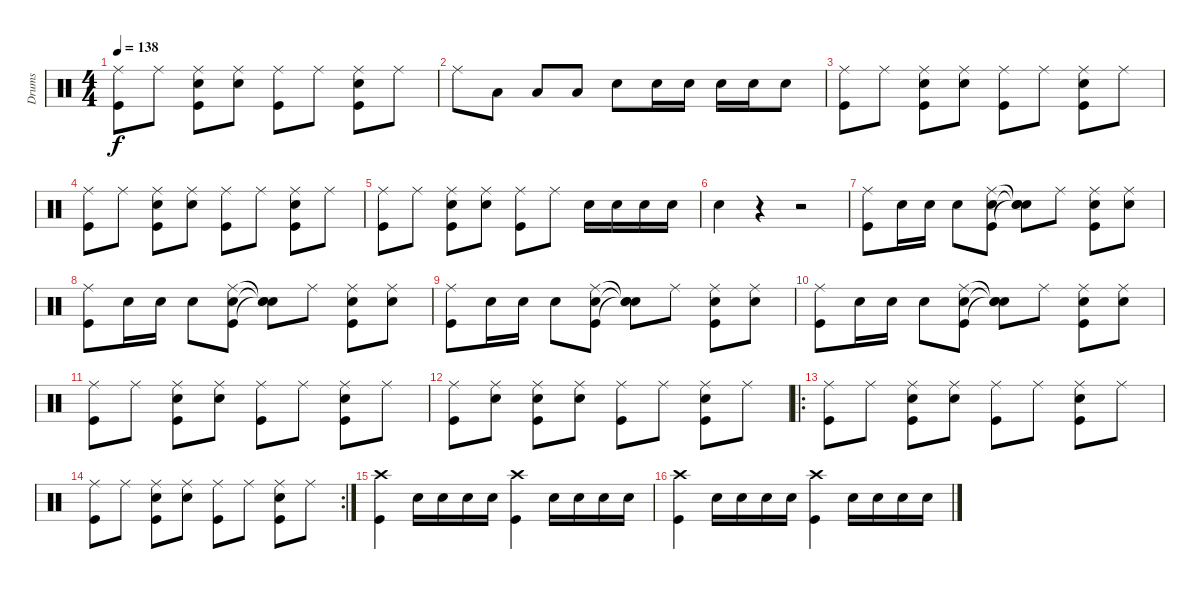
\track ("Drums" "Drums") {instrument percussion}
\staff {score}
\articulation defaults
\ts (4 4)
\tempo 138
\clef neutral
\ks c
("Ride (middle)" "Kick (hit)").8{dy f} "Ride (middle)".8 ("Ride (middle)" "Snare (hit) 2" "Kick (hit)").8 ("Ride (middle)" "Snare (hit) 2").8 ("Ride (middle)" "Kick (hit)").8 "Ride (middle)".8 ("Ride (middle)" "Snare (hit) 2" "Kick (hit)").8 "Ride (middle)".8 |
"Ride (middle)".8 "Low Tom (hit)".8 "Low Tom (hit)".8 "Low Tom (hit)".8 "Snare (hit) 2".8 "Snare (hit) 2".16 "Snare (hit) 2".16 "Snare (hit) 2".16 "Snare (hit) 2".16 "Snare (hit) 2".8 |
("Ride (middle)" "Kick (hit)").8 "Ride (middle)".8 ("Ride (middle)" "Snare (hit) 2" "Kick (hit)").8 ("Ride (middle)" "Snare (hit) 2").8 ("Ride (middle)" "Kick (hit)").8 "Ride (middle)".8 ("Ride (middle)" "Snare (hit) 2" "Kick (hit)").8 "Ride (middle)".8 |
("Ride (middle)" "Kick (hit)").8 "Ride (middle)".8 ("Ride (middle)" "Snare (hit) 2" "Kick (hit)").8 ("Ride (middle)" "Snare (hit) 2").8 ("Ride (middle)" "Kick (hit)").8 "Ride (middle)".8 ("Ride (middle)" "Snare (hit) 2" "Kick (hit)").8 "Ride (middle)".8 |
("Ride (middle)" "Kick (hit)").8 "Ride (middle)".8 ("Ride (middle)" "Snare (hit) 2" "Kick (hit)").8 ("Ride (middle)" "Snare (hit) 2").8 ("Ride (middle)" "Kick (hit)").8 "Ride (middle)".8 "Snare (hit) 2".16 "Snare (hit) 2".16 "Snare (hit) 2".16 "Snare (hit) 2".16 |
"Snare (hit) 2".4 r.4 r.2 |
("Ride (middle)" "Kick (hit)").8 "Snare (hit) 2".16 "Snare (hit) 2".16 "Snare (hit) 2".8 ("Ride (middle)" "Snare (hit) 2" "Kick (hit)").8 ("Snare (hit)"{t} "Snare (hit)"{t} "Snare (hit)"{t}).8 "Ride (middle)".8 ("Ride (middle)" "Snare (hit) 2" "Kick (hit)").8 ("Ride (middle)" "Snare (hit) 2").8 |
("Ride (middle)" "Kick (hit)").8 "Snare (hit) 2".16 "Snare (hit) 2".16 "Snare (hit) 2".8 ("Ride (middle)" "Snare (hit) 2" "Kick (hit)").8 ("Snare (hit)"{t} "Snare (hit)"{t} "Snare (hit)"{t}).8 "Ride (middle)".8 ("Ride (middle)" "Snare (hit) 2" "Kick (hit)").8 ("Ride (middle)" "Snare (hit) 2").8 |
("Ride (middle)" "Kick (hit)").8 "Snare (hit) 2".16 "Snare (hit) 2".16 "Snare (hit) 2".8 ("Ride (middle)" "Snare (hit) 2" "Kick (hit)").8 ("Snare (hit)"{t} "Snare (hit)"{t} "Snare (hit)"{t}).8 "Ride (middle)".8 ("Ride (middle)" "Snare (hit) 2" "Kick (hit)").8 ("Ride (middle)" "Snare (hit) 2").8 |
("Ride (middle)" "Kick (hit)").8 "Snare (hit) 2".16 "Snare (hit) 2".16 "Snare (hit) 2".8 ("Ride (middle)" "Snare (hit) 2" "Kick (hit)").8 ("Snare (hit)"{t} "Snare (hit)"{t} "Snare (hit)"{t}).8 "Ride (middle)".8 ("Ride (middle)" "Snare (hit) 2" "Kick (hit)").8 ("Ride (middle)" "Snare (hit) 2").8 |
("Ride (middle)" "Kick (hit)").8 "Ride (middle)".8 ("Ride (middle)" "Snare (hit) 2" "Kick (hit)").8 ("Ride (middle)" "Snare (hit) 2").8 ("Ride (middle)" "Kick (hit)").8 "Ride (middle)".8 ("Ride (middle)" "Snare (hit) 2" "Kick (hit)").8 "Ride (middle)".8 |
("Ride (middle)" "Kick (hit)").8 ("Ride (middle)" "Snare (hit) 2").8 ("Ride (middle)" "Snare (hit) 2" "Kick (hit)").8 ("Ride (middle)" "Snare (hit) 2").8 ("Ride (middle)" "Kick (hit)").8 "Ride (middle)".8 ("Ride (middle)" "Snare (hit) 2" "Kick (hit)").8 "Ride (middle)".8 |
\ro
("Ride (middle)" "Kick (hit)").8 "Ride (middle)".8 ("Ride (middle)" "Snare (hit) 2" "Kick (hit)").8 ("Ride (middle)" "Snare (hit) 2").8 ("Ride (middle)" "Kick (hit)").8 "Ride (middle)".8 ("Ride (middle)" "Snare (hit) 2" "Kick (hit)").8 "Ride (middle)".8 |
\rc 2
("Ride (middle)" "Kick (hit)").8 "Ride (middle)".8 ("Ride (middle)" "Snare (hit) 2" "Kick (hit)").8 ("Ride (middle)" "Snare (hit) 2").8 ("Ride (middle)" "Kick (hit)").8 "Ride (middle)".8 ("Ride (middle)" "Snare (hit) 2" "Kick (hit)").8 "Ride (middle)".8 |
("Crash high (hit)" "Kick (hit)").4 "Snare (hit) 2".16 "Snare (hit) 2".16 "Snare (hit) 2".16 "Snare (hit) 2".16 ("Crash high (hit)" "Kick (hit)").4 "Snare (hit) 2".16 "Snare (hit) 2".16 "Snare (hit) 2".16 "Snare (hit) 2".16 |
("Crash high (hit)" "Kick (hit)").4 "Snare (hit) 2".16 "Snare (hit) 2".16 "Snare (hit) 2".16 "Snare (hit) 2".16 ("Crash high (hit)" "Kick (hit)").4 "Snare (hit) 2".16 "Snare (hit) 2".16 "Snare (hit) 2".16 "Snare (hit) 2".16
